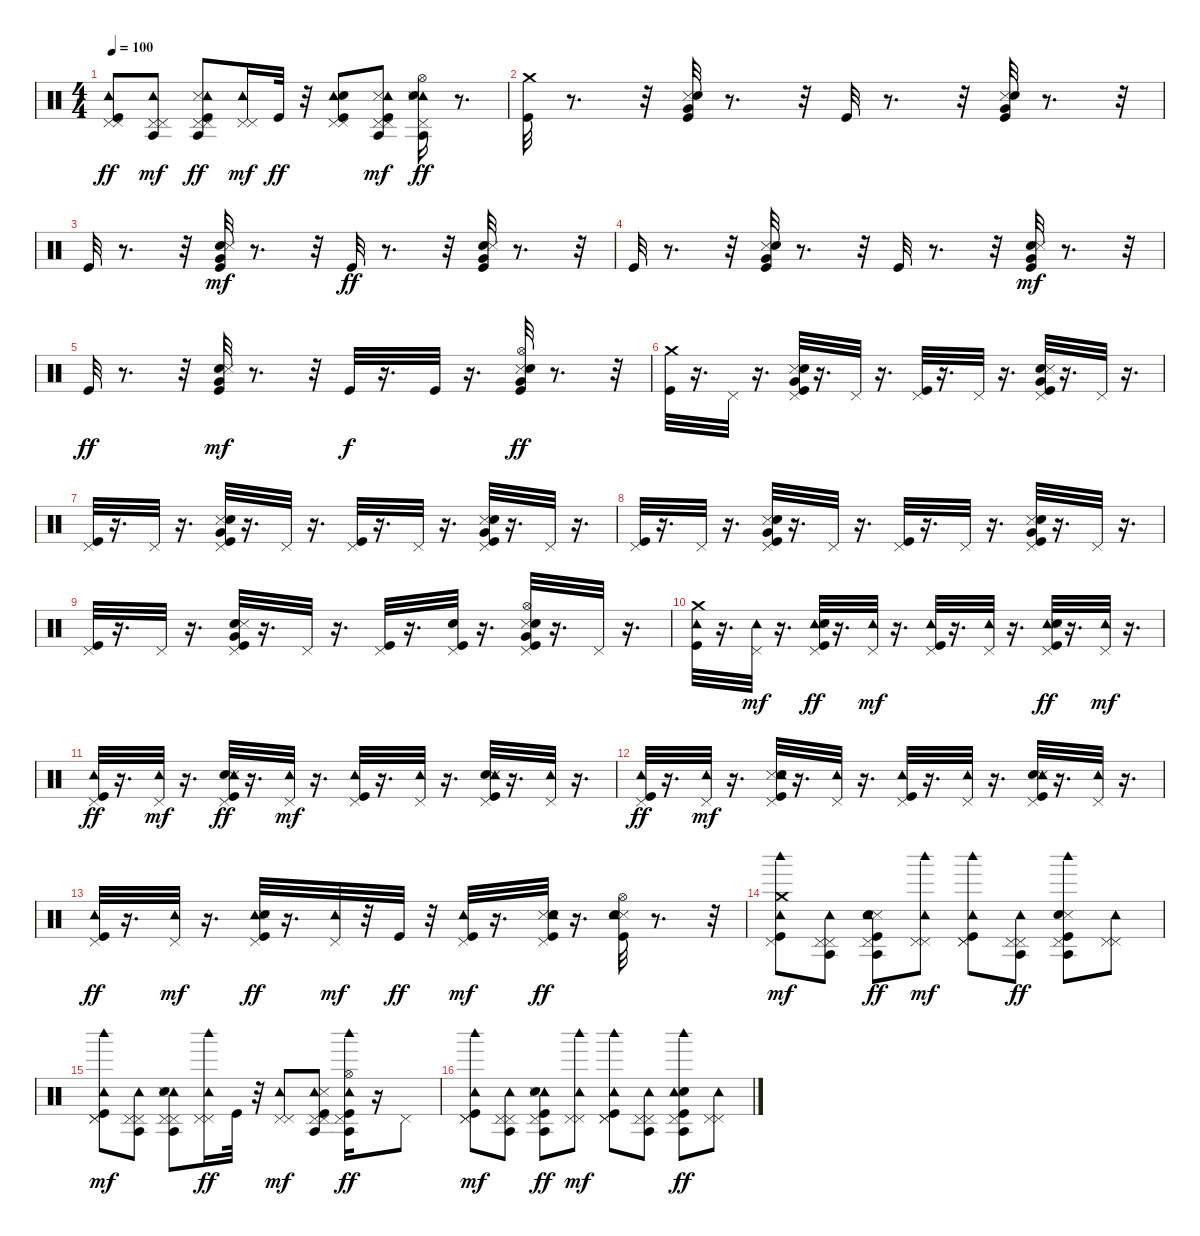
\track "" {instrument percussion}
\staff {score}
\articulation defaults
\ts (4 4)
\tempo 100
\clef neutral
\ks c
("Pedal Hi-Hat (hit)" "Tambourine (hit)" "Pedal Hi-Hat (hit)" "Kick (hit)").8{dy ff} ("Pedal Hi-Hat (hit)" "Tambourine (hit)" "Pedal Hi-Hat (hit)" "Agogo tow (hit)").8{dy mf} ("Agogo tow (hit)" "Pedal Hi-Hat (hit)" "Pedal Hi-Hat (hit)" "Snare (side stick) 3" "Tambourine (hit)" "Kick (hit)").8{dy ff} ("Pedal Hi-Hat (hit)" "Pedal Hi-Hat (hit)" "Tambourine (hit)").16{dy mf} "Kick (hit)".32{dy ff} r.32 ("Tambourine (hit)" "Snare (hit) 2" "Pedal Hi-Hat (hit)" "Pedal Hi-Hat (hit)" "Kick (hit)").8 ("Snare (side stick) 3" "Pedal Hi-Hat (hit)" "Pedal Hi-Hat (hit)" "Kick (hit)" "Agogo tow (hit)" "Tambourine (hit)").8{dy mf} ("Hi-Hat (open)" "Pedal Hi-Hat (hit)" "Agogo tow (hit)" "Tambourine (hit)" "Snare (side stick) 3" "Snare (hit) 2").16{dy ff} r.8{d} |
("Crash medium (hit)" "Kick (hit)").32 r.8{d} r.32 ("Snare (side stick) 3" "Snare (hit) 2" "Very Low Tom (hit)" "Kick (hit)").32 r.8{d} r.32 "Kick (hit)".32 r.8{d} r.32 ("Snare (side stick) 3" "Very Low Tom (hit)" "Snare (hit) 2" "Kick (hit)").32 r.8{d} r.32 |
"Kick (hit)".32 r.8{d} r.32 ("Snare (hit) 2" "Kick (hit)" "Very Low Tom (hit)" "Snare (side stick) 3").32{dy mf} r.8{d} r.32 "Kick (hit)".32{dy ff} r.8{d} r.32 ("Snare (hit) 2" "Snare (side stick) 3" "Kick (hit)" "Very Low Tom (hit)").32 r.8{d} r.32 |
"Kick (hit)".32 r.8{d} r.32 ("Very Low Tom (hit)" "Snare (side stick) 3" "Snare (hit) 2" "Kick (hit)").32 r.8{d} r.32 "Kick (hit)".32 r.8{d} r.32 ("Snare (hit) 2" "Kick (hit)" "Very Low Tom (hit)" "Snare (side stick) 3").32{dy mf} r.8{d} r.32 |
"Kick (hit)".32{dy ff} r.8{d} r.32 ("Very Low Tom (hit)" "Snare (hit) 2" "Kick (hit)" "Snare (side stick) 3").32{dy mf} r.8{d} r.32 "Kick (hit)".32{dy f} r.16{d} "Kick (hit)".32 r.16{d} ("Kick (hit)" "Hi-Hat (open)" "Snare (side stick) 3" "Snare (hit) 2" "Very Low Tom (hit)").32{dy ff} r.8{d} r.32 |
("Crash medium (hit)" "Kick (hit)").32 r.16{d} "Pedal Hi-Hat (hit)".32 r.16{d} ("Snare (side stick) 3" "Pedal Hi-Hat (hit)" "Very Low Tom (hit)" "Kick (hit)" "Snare (hit) 2").32 r.16{d} "Pedal Hi-Hat (hit)".32 r.16{d} ("Pedal Hi-Hat (hit)" "Kick (hit)").32 r.16{d} "Pedal Hi-Hat (hit)".32 r.16{d} ("Snare (hit) 2" "Very Low Tom (hit)" "Kick (hit)" "Snare (side stick) 3" "Pedal Hi-Hat (hit)").32 r.16{d} "Pedal Hi-Hat (hit)".32 r.16{d} |
("Pedal Hi-Hat (hit)" "Kick (hit)").32 r.16{d} "Pedal Hi-Hat (hit)".32 r.16{d} ("Very Low Tom (hit)" "Snare (side stick) 3" "Snare (hit) 2" "Pedal Hi-Hat (hit)" "Kick (hit)").32 r.16{d} "Pedal Hi-Hat (hit)".32 r.16{d} ("Pedal Hi-Hat (hit)" "Kick (hit)").32 r.16{d} "Pedal Hi-Hat (hit)".32 r.16{d} ("Kick (hit)" "Pedal Hi-Hat (hit)" "Snare (side stick) 3" "Very Low Tom (hit)" "Snare (hit) 2").32 r.16{d} "Pedal Hi-Hat (hit)".32 r.16{d} |
("Kick (hit)" "Pedal Hi-Hat (hit)").32 r.16{d} "Pedal Hi-Hat (hit)".32 r.16{d} ("Snare (side stick) 3" "Pedal Hi-Hat (hit)" "Very Low Tom (hit)" "Kick (hit)" "Snare (hit) 2").32 r.16{d} "Pedal Hi-Hat (hit)".32 r.16{d} ("Pedal Hi-Hat (hit)" "Kick (hit)").32 r.16{d} "Pedal Hi-Hat (hit)".32 r.16{d} ("Kick (hit)" "Very Low Tom (hit)" "Snare (side stick) 3" "Pedal Hi-Hat (hit)" "Snare (hit) 2").32 r.16{d} "Pedal Hi-Hat (hit)".32 r.16{d} |
("Kick (hit)" "Pedal Hi-Hat (hit)").32 r.16{d} "Pedal Hi-Hat (hit)".32 r.16{d} ("Very Low Tom (hit)" "Snare (hit) 2" "Snare (side stick) 3" "Kick (hit)" "Pedal Hi-Hat (hit)").32 r.16{d} "Pedal Hi-Hat (hit)".32 r.16{d} ("Pedal Hi-Hat (hit)" "Kick (hit)").32 r.16{d} ("Kick (hit)" "Pedal Hi-Hat (hit)" "Snare (hit) 2").32 r.16{d} ("Very Low Tom (hit)" "Hi-Hat (open)" "Snare (side stick) 3" "Kick (hit)" "Snare (hit) 2" "Pedal Hi-Hat (hit)").32 r.16{d} "Pedal Hi-Hat (hit)".32 r.16{d} |
("Kick (hit)" "Tambourine (hit)" "Crash medium (hit)").32 r.16{d} ("Pedal Hi-Hat (hit)" "Tambourine (hit)").32{dy mf} r.16{d} ("Tambourine (hit)" "Pedal Hi-Hat (hit)" "Snare (hit) 2" "Snare (side stick) 3" "Kick (hit)").32{dy ff} r.16{d} ("Pedal Hi-Hat (hit)" "Tambourine (hit)").32{dy mf} r.16{d} ("Kick (hit)" "Pedal Hi-Hat (hit)" "Tambourine (hit)").32 r.16{d} ("Tambourine (hit)" "Pedal Hi-Hat (hit)").32 r.16{d} ("Tambourine (hit)" "Pedal Hi-Hat (hit)" "Snare (hit) 2" "Snare (side stick) 3" "Kick (hit)").32{dy ff} r.16{d} ("Pedal Hi-Hat (hit)" "Tambourine (hit)").32{dy mf} r.16{d} |
("Pedal Hi-Hat (hit)" "Kick (hit)" "Tambourine (hit)").32{dy ff} r.16{d} ("Pedal Hi-Hat (hit)" "Tambourine (hit)").32{dy mf} r.16{d} ("Snare (hit) 2" "Tambourine (hit)" "Pedal Hi-Hat (hit)" "Snare (side stick) 3" "Kick (hit)").32{dy ff} r.16{d} ("Tambourine (hit)" "Pedal Hi-Hat (hit)").32{dy mf} r.16{d} ("Kick (hit)" "Tambourine (hit)" "Pedal Hi-Hat (hit)").32 r.16{d} ("Pedal Hi-Hat (hit)" "Tambourine (hit)").32 r.16{d} ("Pedal Hi-Hat (hit)" "Kick (hit)" "Snare (hit) 2" "Tambourine (hit)" "Snare (side stick) 3").32 r.16{d} ("Pedal Hi-Hat (hit)" "Tambourine (hit)").32 r.16{d} |
("Pedal Hi-Hat (hit)" "Kick (hit)" "Tambourine (hit)").32{dy ff} r.16{d} ("Tambourine (hit)" "Pedal Hi-Hat (hit)").32{dy mf} r.16{d} ("Snare (side stick) 3" "Snare (hit) 2" "Pedal Hi-Hat (hit)" "Kick (hit)" "Tambourine (hit)").32 r.16{d} ("Tambourine (hit)" "Pedal Hi-Hat (hit)").32 r.16{d} ("Kick (hit)" "Tambourine (hit)" "Pedal Hi-Hat (hit)").32 r.16{d} ("Pedal Hi-Hat (hit)" "Tambourine (hit)").32 r.16{d} ("Snare (hit) 2" "Kick (hit)" "Snare (side stick) 3" "Tambourine (hit)" "Pedal Hi-Hat (hit)").32 r.16{d} ("Tambourine (hit)" "Pedal Hi-Hat (hit)").32 r.16{d} |
("Pedal Hi-Hat (hit)" "Kick (hit)" "Tambourine (hit)").32{dy ff} r.16{d} ("Pedal Hi-Hat (hit)" "Tambourine (hit)").32{dy mf} r.16{d} ("Tambourine (hit)" "Snare (hit) 2" "Snare (side stick) 3" "Pedal Hi-Hat (hit)" "Kick (hit)").32{dy ff} r.16{d} ("Tambourine (hit)" "Pedal Hi-Hat (hit)").32{dy mf} r.32 "Kick (hit)".32{dy ff} r.32 ("Kick (hit)" "Pedal Hi-Hat (hit)" "Tambourine (hit)").32{dy mf} r.16{d} ("Kick (hit)" "Pedal Hi-Hat (hit)" "Snare (side stick) 3" "Snare (hit) 2" "Tambourine (hit)").32{dy ff} r.16{d} ("Kick (hit)" "Hi-Hat (open)" "Snare (side stick) 3" "Snare (hit) 2" "Tambourine (hit)").32 r.8{d} r.32 |
("Kick (hit)" "Tambourine (hit)" "Crash medium (hit)" "Woodblock high (hit)" "Pedal Hi-Hat (hit)").8{dy mf} ("Pedal Hi-Hat (hit)" "Agogo tow (hit)" "Tambourine (hit)" "Pedal Hi-Hat (hit)").8 ("Snare (side stick) 3" "Agogo tow (hit)" "Snare (hit) 2" "Tambourine (hit)" "Kick (hit)" "Pedal Hi-Hat (hit)").8{dy ff} ("Pedal Hi-Hat (hit)" "Pedal Hi-Hat (hit)" "Woodblock high (hit)" "Tambourine (hit)").8{dy mf} ("Tambourine (hit)" "Pedal Hi-Hat (hit)" "Pedal Hi-Hat (hit)" "Kick (hit)" "Woodblock high (hit)").8 ("Pedal Hi-Hat (hit)" "Tambourine (hit)" "Agogo tow (hit)" "Pedal Hi-Hat (hit)").8{dy ff} ("Snare (side stick) 3" "Kick (hit)" "Woodblock high (hit)" "Agogo tow (hit)" "Pedal Hi-Hat (hit)" "Snare (hit) 2").8 ("Tambourine (hit)" "Pedal Hi-Hat (hit)" "Pedal Hi-Hat (hit)").8 |
("Kick (hit)" "Pedal Hi-Hat (hit)" "Woodblock high (hit)" "Pedal Hi-Hat (hit)" "Tambourine (hit)").8{dy mf} ("Pedal Hi-Hat (hit)" "Pedal Hi-Hat (hit)" "Tambourine (hit)" "Agogo tow (hit)").8 ("Tambourine (hit)" "Snare (hit) 2" "Pedal Hi-Hat (hit)" "Agogo tow (hit)" "Pedal Hi-Hat (hit)" "Snare (side stick) 3").8 ("Pedal Hi-Hat (hit)" "Tambourine (hit)" "Woodblock high (hit)" "Pedal Hi-Hat (hit)").16{dy ff} "Kick (hit)".32 r.32 ("Tambourine (hit)" "Pedal Hi-Hat (hit)" "Pedal Hi-Hat (hit)").8{dy mf} ("Kick (hit)" "Pedal Hi-Hat (hit)" "Tambourine (hit)" "Agogo tow (hit)" "Pedal Hi-Hat (hit)" "Snare (side stick) 3").8 ("Hi-Hat (open)" "Agogo tow (hit)" "Pedal Hi-Hat (hit)" "Woodblock high (hit)" "Tambourine (hit)" "Kick (hit)").16{dy ff} r.16 "Pedal Hi-Hat (hit)".8 |
("Kick (hit)" "Tambourine (hit)" "Pedal Hi-Hat (hit)" "Pedal Hi-Hat (hit)" "Woodblock high (hit)").8{dy mf} ("Pedal Hi-Hat (hit)" "Tambourine (hit)" "Agogo tow (hit)" "Pedal Hi-Hat (hit)").8 ("Agogo tow (hit)" "Tambourine (hit)" "Pedal Hi-Hat (hit)" "Kick (hit)" "Snare (side stick) 3" "Snare (hit) 2").8{dy ff} ("Pedal Hi-Hat (hit)" "Tambourine (hit)" "Pedal Hi-Hat (hit)" "Woodblock high (hit)").8{dy mf} ("Kick (hit)" "Woodblock high (hit)" "Tambourine (hit)" "Pedal Hi-Hat (hit)" "Pedal Hi-Hat (hit)").8 ("Tambourine (hit)" "Pedal Hi-Hat (hit)" "Agogo tow (hit)" "Pedal Hi-Hat (hit)").8 ("Pedal Hi-Hat (hit)" "Woodblock high (hit)" "Snare (hit) 2" "Agogo tow (hit)" "Tambourine (hit)" "Kick (hit)").8{dy ff} ("Pedal Hi-Hat (hit)" "Tambourine (hit)" "Pedal Hi-Hat (hit)").8
